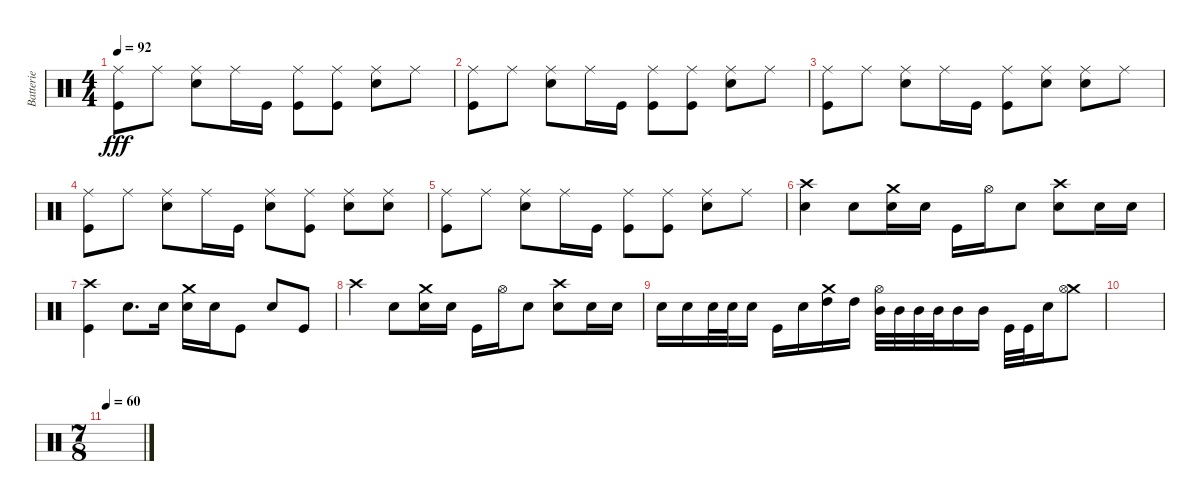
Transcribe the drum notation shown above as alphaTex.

\track ("Batterie" "Batterie") {instrument percussion}
\staff {score}
\articulation defaults
\ts (4 4)
\tempo 92
\clef neutral
\ks c
("Ride (middle)" "Kick (hit)").8{dy fff} "Ride (middle)".8 ("Ride (middle)" "Electric Snare (hit)").8 "Ride (middle)".16 "Kick (hit)".16 ("Ride (middle)" "Kick (hit)").8 ("Ride (middle)" "Kick (hit)").8 ("Ride (middle)" "Electric Snare (hit)").8 "Ride (middle)".8 |
("Ride (middle)" "Kick (hit)").8 "Ride (middle)".8 ("Ride (middle)" "Electric Snare (hit)").8 "Ride (middle)".16 "Kick (hit)".16 ("Ride (middle)" "Kick (hit)").8 ("Ride (middle)" "Kick (hit)").8 ("Ride (middle)" "Electric Snare (hit)").8 "Ride (middle)".8 |
("Ride (middle)" "Kick (hit)").8 "Ride (middle)".8 ("Ride (middle)" "Electric Snare (hit)").8 "Ride (middle)".16 "Kick (hit)".16 ("Ride (middle)" "Kick (hit)").8 ("Ride (middle)" "Electric Snare (hit)").8 ("Ride (middle)" "Electric Snare (hit)").8 "Ride (middle)".8 |
("Ride (middle)" "Kick (hit)").8 "Ride (middle)".8 ("Ride (middle)" "Electric Snare (hit)").8 "Ride (middle)".16 "Kick (hit)".16 ("Ride (middle)" "Electric Snare (hit)").8 ("Ride (middle)" "Kick (hit)").8 ("Ride (middle)" "Electric Snare (hit)").8 ("Ride (middle)" "Electric Snare (hit)").8 |
("Ride (middle)" "Kick (hit)").8 "Ride (middle)".8 ("Ride (middle)" "Electric Snare (hit)").8 "Ride (middle)".16 "Kick (hit)".16 ("Ride (middle)" "Kick (hit)").8 ("Ride (middle)" "Kick (hit)").8 ("Ride (middle)" "Electric Snare (hit)").8 "Ride (middle)".8 |
("Crash high (hit)" "Electric Snare (hit)").4 "Electric Snare (hit)".8 ("Crash medium (hit)" "Electric Snare (hit)").16 "Electric Snare (hit)".16 "Kick (hit)".16 "Hi-Hat (open)".16 "Electric Snare (hit)".8 ("Crash high (hit)" "Electric Snare (hit)").8 "Electric Snare (hit)".16 "Electric Snare (hit)".16 |
("Crash high (hit)" "Kick (hit)").4 "Electric Snare (hit)".8{d} "Electric Snare (hit)".16 ("Crash medium (hit)" "Electric Snare (hit)").16 "Electric Snare (hit)".16 "Kick (hit)".8 "Electric Snare (hit)".8 "Kick (hit)".8 |
"Crash high (hit)".4 "Electric Snare (hit)".8 ("Crash medium (hit)" "Electric Snare (hit)").16 "Electric Snare (hit)".16 "Kick (hit)".16 "Hi-Hat (open)".16 "Electric Snare (hit)".8 ("Crash high (hit)" "Electric Snare (hit)").8 "Electric Snare (hit)".16 "Electric Snare (hit)".16 |
"Electric Snare (hit)".16 "Electric Snare (hit)".16 "Electric Snare (hit)".32 "Electric Snare (hit)".32 "Electric Snare (hit)".16 "Kick (hit)".16 "Electric Snare (hit)".16 ("Crash medium (hit)" "High Tom (hit)").16 "High Tom (hit)".16 ("Hi-Hat (open)" "Mid Tom (hit)").32 "Mid Tom (hit)".32 "Mid Tom (hit)".32 "Mid Tom (hit)".32 "Mid Tom (hit)".16 "Mid Tom (hit)".16 "Kick (hit)".32 "Kick (hit)".32 "Electric Snare (hit)".16 ("Crash medium (hit)" "Hi-Hat (open)").8 |
|
\ts (7 8)
\tempo 60
